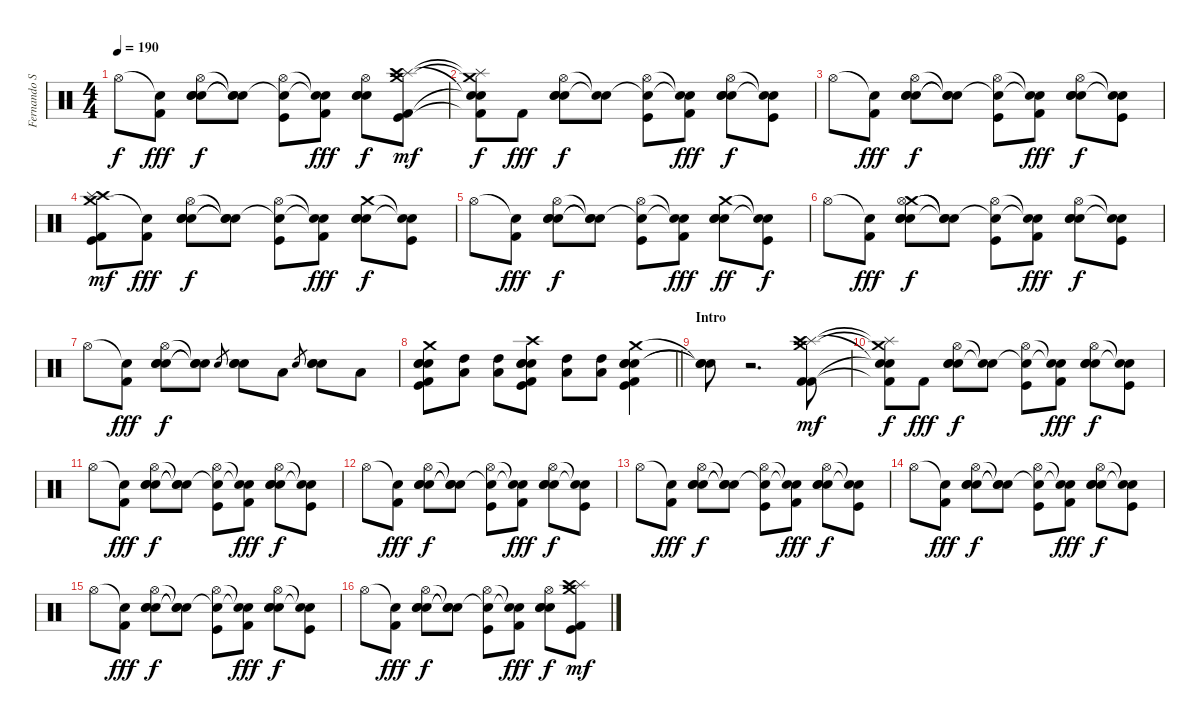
\track ("Fernando Scarcella" "Fernando S") {instrument percussion}
\staff {score}
\articulation defaults
\ts (4 4)
\tempo 190
\clef neutral
\ks c "Hi-Hat (open)".8{dy f}
("Snare (hit)"{t} "Kick (hit) 2").8{dy fff} ("Hi-Hat (open)" "Electric Snare (hit)" "Electric Snare (hit)" "Electric Snare (hit)").8{dy f} ("Snare (hit)"{t} "Snare (hit)"{t} "Snare (hit)"{t}).8 ("Hi-Hat (open)" "Snare (hit)"{t} "Kick (hit)").8 ("Snare (hit)"{t} "Snare (hit)"{t} "Kick (hit) 2").8{dy fff} ("Hi-Hat (open)" "Electric Snare (hit)" "Electric Snare (hit)" "Electric Snare (hit)").8{dy f} ("Crash medium (hit)" "Splash (hit)" "Crash high (hit)" "Kick (hit) 2" "Kick (hit)").8{dy mf} |
("Crash medium (hit)"{t} "Splash (hit)"{t} "Snare (hit)"{t} "Snare (hit)"{t} "Kick (hit) 2"{t}).8{dy f} "Kick (hit) 2".8{dy fff} ("Hi-Hat (open)" "Electric Snare (hit)" "Electric Snare (hit)" "Electric Snare (hit)").8{dy f} ("Snare (hit)"{t} "Snare (hit)"{t}).8 ("Hi-Hat (open)" "Snare (hit)"{t} "Kick (hit)").8 ("Snare (hit)"{t} "Snare (hit)"{t} "Kick (hit) 2").8{dy fff} ("Hi-Hat (open)" "Electric Snare (hit)" "Electric Snare (hit)" "Electric Snare (hit)").8{dy f} ("Snare (hit)"{t} "Snare (hit)"{t} "Kick (hit)").8 |
"Hi-Hat (open)".8 ("Snare (hit)"{t} "Kick (hit) 2").8{dy fff} ("Hi-Hat (open)" "Electric Snare (hit)" "Electric Snare (hit)" "Electric Snare (hit)").8{dy f} ("Snare (hit)"{t} "Snare (hit)"{t} "Snare (hit)"{t}).8 ("Hi-Hat (open)" "Snare (hit)"{t} "Kick (hit)").8 ("Snare (hit)"{t} "Snare (hit)"{t} "Kick (hit) 2").8{dy fff} ("Hi-Hat (open)" "Electric Snare (hit)" "Electric Snare (hit)" "Electric Snare (hit)").8{dy f} ("Snare (hit)"{t} "Snare (hit)"{t} "Kick (hit)").8 |
("Crash medium (hit)" "Crash high (hit)" "Splash (hit)" "Kick (hit) 2" "Kick (hit)").8{dy mf} ("Snare (hit)"{t} "Kick (hit) 2").8{dy fff} ("Hi-Hat (open)" "Electric Snare (hit)" "Electric Snare (hit)" "Electric Snare (hit)").8{dy f} ("Snare (hit)"{t} "Snare (hit)"{t} "Snare (hit)"{t}).8 ("Hi-Hat (open)" "Snare (hit)"{t} "Kick (hit)").8 ("Snare (hit)"{t} "Snare (hit)"{t} "Kick (hit) 2").8{dy fff} ("Crash medium (hit)" "Electric Snare (hit)" "Electric Snare (hit)" "Electric Snare (hit)").8{dy f} ("Snare (hit)"{t} "Snare (hit)"{t} "Kick (hit)").8 |
"Hi-Hat (open)".8 ("Snare (hit)"{t} "Kick (hit) 2").8{dy fff} ("Hi-Hat (open)" "Electric Snare (hit)" "Electric Snare (hit)" "Electric Snare (hit)").8{dy f} ("Snare (hit)"{t} "Snare (hit)"{t} "Snare (hit)"{t}).8 ("Hi-Hat (open)" "Snare (hit)"{t} "Kick (hit)").8 ("Snare (hit)"{t} "Snare (hit)"{t} "Kick (hit) 2").8{dy fff} ("Crash medium (hit)" "Electric Snare (hit)" "Electric Snare (hit)" "Electric Snare (hit)").8{dy ff} ("Snare (hit)"{t} "Snare (hit)"{t} "Kick (hit)").8{dy f} |
"Hi-Hat (open)".8 ("Snare (hit)"{t} "Kick (hit) 2").8{dy fff} ("Crash medium (hit)" "Hi-Hat (open)" "Electric Snare (hit)" "Electric Snare (hit)" "Electric Snare (hit)").8{dy f} ("Snare (hit)"{t} "Snare (hit)"{t} "Snare (hit)"{t}).8 ("Hi-Hat (open)" "Snare (hit)"{t} "Kick (hit)").8 ("Snare (hit)"{t} "Snare (hit)"{t} "Kick (hit) 2").8{dy fff} ("Hi-Hat (open)" "Electric Snare (hit)" "Electric Snare (hit)" "Electric Snare (hit)").8{dy f} ("Snare (hit)"{t} "Snare (hit)"{t} "Kick (hit)").8 |
"Hi-Hat (open)".8 ("Snare (hit)"{t} "Kick (hit) 2").8{dy fff} ("Hi-Hat (open)" "Electric Snare (hit)" "Electric Snare (hit)" "Electric Snare (hit)").8{dy f} ("Snare (hit)"{t} "Snare (hit)"{t} "Snare (hit)"{t}).8 "Electric Snare (hit)".8{gr} ("Electric Snare (hit)" "Electric Snare (hit)" "Electric Snare (hit)").8 "Low Tom (hit)".8 "Electric Snare (hit)".8{gr} ("Electric Snare (hit)" "Electric Snare (hit)" "Electric Snare (hit)").8 "Low Tom (hit)".8 |
\barLineRight lightlight
("Crash medium (hit)" "Electric Snare (hit)" "Electric Snare (hit)" "Electric Snare (hit)" "Kick (hit) 2" "Kick (hit)").8 ("Low Tom (hit)" "High Tom (hit)").8 ("Low Tom (hit)" "High Tom (hit)").8 ("Crash high (hit)" "Electric Snare (hit)" "Electric Snare (hit)" "Electric Snare (hit)" "Kick (hit)" "Kick (hit) 2").8 ("Low Tom (hit)" "High Tom (hit)").8 ("Low Tom (hit)" "High Tom (hit)").8 ("Crash medium (hit)" "Electric Snare (hit)" "Electric Snare (hit)" "Electric Snare (hit)" "Kick (hit) 2" "Kick (hit)").4 |
\section ("" "Intro")
("Snare (hit)"{t} "Snare (hit)"{t} "Snare (hit)"{t}).8 r.2{d} ("Crash medium (hit)" "Splash (hit)" "Crash high (hit)" "Kick (hit) 2" "Kick (hit) 2").8{dy mf} |
("Crash medium (hit)"{t} "Splash (hit)"{t} "Snare (hit)"{t} "Snare (hit)"{t} "Kick (hit) 2"{t}).8{dy f} "Kick (hit) 2".8{dy fff} ("Hi-Hat (open)" "Electric Snare (hit)" "Electric Snare (hit)" "Electric Snare (hit)").8{dy f} ("Snare (hit)"{t} "Snare (hit)"{t}).8 ("Hi-Hat (open)" "Snare (hit)"{t} "Kick (hit)").8 ("Snare (hit)"{t} "Snare (hit)"{t} "Kick (hit) 2").8{dy fff} ("Hi-Hat (open)" "Electric Snare (hit)" "Electric Snare (hit)" "Electric Snare (hit)").8{dy f} ("Snare (hit)"{t} "Snare (hit)"{t} "Kick (hit)").8 |
"Hi-Hat (open)".8 ("Snare (hit)"{t} "Kick (hit) 2").8{dy fff} ("Hi-Hat (open)" "Electric Snare (hit)" "Electric Snare (hit)" "Electric Snare (hit)").8{dy f} ("Snare (hit)"{t} "Snare (hit)"{t} "Snare (hit)"{t}).8 ("Hi-Hat (open)" "Snare (hit)"{t} "Kick (hit)").8 ("Snare (hit)"{t} "Snare (hit)"{t} "Kick (hit) 2").8{dy fff} ("Hi-Hat (open)" "Electric Snare (hit)" "Electric Snare (hit)" "Electric Snare (hit)").8{dy f} ("Snare (hit)"{t} "Snare (hit)"{t} "Kick (hit)").8 |
"Hi-Hat (open)".8 ("Snare (hit)"{t} "Kick (hit) 2").8{dy fff} ("Hi-Hat (open)" "Electric Snare (hit)" "Electric Snare (hit)" "Electric Snare (hit)").8{dy f} ("Snare (hit)"{t} "Snare (hit)"{t} "Snare (hit)"{t}).8 ("Hi-Hat (open)" "Snare (hit)"{t} "Kick (hit)").8 ("Snare (hit)"{t} "Snare (hit)"{t} "Kick (hit) 2").8{dy fff} ("Hi-Hat (open)" "Electric Snare (hit)" "Electric Snare (hit)" "Electric Snare (hit)").8{dy f} ("Snare (hit)"{t} "Snare (hit)"{t} "Kick (hit)").8 |
"Hi-Hat (open)".8 ("Snare (hit)"{t} "Kick (hit) 2").8{dy fff} ("Hi-Hat (open)" "Electric Snare (hit)" "Electric Snare (hit)" "Electric Snare (hit)").8{dy f} ("Snare (hit)"{t} "Snare (hit)"{t} "Snare (hit)"{t}).8 ("Hi-Hat (open)" "Snare (hit)"{t} "Kick (hit)").8 ("Snare (hit)"{t} "Snare (hit)"{t} "Kick (hit) 2").8{dy fff} ("Hi-Hat (open)" "Electric Snare (hit)" "Electric Snare (hit)" "Electric Snare (hit)").8{dy f} ("Snare (hit)"{t} "Snare (hit)"{t} "Kick (hit)").8 |
"Hi-Hat (open)".8 ("Snare (hit)"{t} "Kick (hit) 2").8{dy fff} ("Hi-Hat (open)" "Electric Snare (hit)" "Electric Snare (hit)" "Electric Snare (hit)").8{dy f} ("Snare (hit)"{t} "Snare (hit)"{t} "Snare (hit)"{t}).8 ("Hi-Hat (open)" "Snare (hit)"{t} "Kick (hit)").8 ("Snare (hit)"{t} "Snare (hit)"{t} "Kick (hit) 2").8{dy fff} ("Hi-Hat (open)" "Electric Snare (hit)" "Electric Snare (hit)" "Electric Snare (hit)").8{dy f} ("Snare (hit)"{t} "Snare (hit)"{t} "Kick (hit)").8 |
"Hi-Hat (open)".8 ("Snare (hit)"{t} "Kick (hit) 2").8{dy fff} ("Hi-Hat (open)" "Electric Snare (hit)" "Electric Snare (hit)" "Electric Snare (hit)").8{dy f} ("Snare (hit)"{t} "Snare (hit)"{t} "Snare (hit)"{t}).8 ("Hi-Hat (open)" "Snare (hit)"{t} "Kick (hit)").8 ("Snare (hit)"{t} "Snare (hit)"{t} "Kick (hit) 2").8{dy fff} ("Hi-Hat (open)" "Electric Snare (hit)" "Electric Snare (hit)" "Electric Snare (hit)").8{dy f} ("Snare (hit)"{t} "Snare (hit)"{t} "Kick (hit)").8 |
"Hi-Hat (open)".8 ("Snare (hit)"{t} "Kick (hit) 2").8{dy fff} ("Hi-Hat (open)" "Electric Snare (hit)" "Electric Snare (hit)" "Electric Snare (hit)").8{dy f} ("Snare (hit)"{t} "Snare (hit)"{t} "Snare (hit)"{t}).8 ("Hi-Hat (open)" "Snare (hit)"{t} "Kick (hit)").8 ("Snare (hit)"{t} "Snare (hit)"{t} "Kick (hit) 2").8{dy fff} ("Hi-Hat (open)" "Electric Snare (hit)" "Electric Snare (hit)" "Electric Snare (hit)").8{dy f} ("Crash medium (hit)" "Splash (hit)" "Crash high (hit)" "Kick (hit) 2" "Kick (hit)").8{dy mf}
